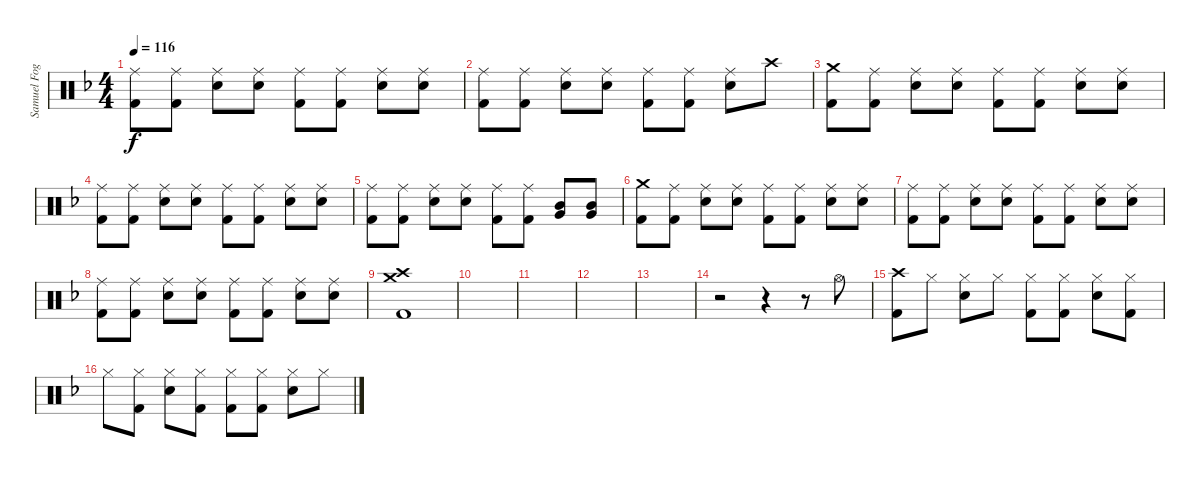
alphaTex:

\track ("Samuel Fogarino" "Samuel Fog") {instrument percussion}
\staff {score}
\articulation defaults
\ts (4 4)
\tempo 116
\clef neutral
\ks f
("Ride (middle)" "Kick (hit) 2").8{dy f} ("Ride (middle)" "Kick (hit) 2").8 ("Ride (middle)" "Snare (hit) 2").8 ("Ride (middle)" "Snare (hit) 2").8 ("Ride (middle)" "Kick (hit) 2").8 ("Ride (middle)" "Kick (hit) 2").8 ("Ride (middle)" "Snare (hit) 2").8 ("Ride (middle)" "Snare (hit) 2").8 |
("Ride (middle)" "Kick (hit) 2").8 ("Ride (middle)" "Kick (hit) 2").8 ("Ride (middle)" "Snare (hit) 2").8 ("Ride (middle)" "Snare (hit) 2").8 ("Ride (middle)" "Kick (hit) 2").8 ("Ride (middle)" "Kick (hit) 2").8 ("Ride (middle)" "Snare (hit) 2").8 "Crash high (hit)".8 |
("Crash medium (hit)" "Kick (hit) 2").8 ("Ride (middle)" "Kick (hit) 2").8 ("Ride (middle)" "Snare (hit) 2").8 ("Ride (middle)" "Snare (hit) 2").8 ("Ride (middle)" "Kick (hit) 2").8 ("Ride (middle)" "Kick (hit) 2").8 ("Ride (middle)" "Snare (hit) 2").8 ("Ride (middle)" "Snare (hit) 2").8 |
("Ride (middle)" "Kick (hit) 2").8 ("Ride (middle)" "Kick (hit) 2").8 ("Ride (middle)" "Snare (hit) 2").8 ("Ride (middle)" "Snare (hit) 2").8 ("Ride (middle)" "Kick (hit) 2").8 ("Ride (middle)" "Kick (hit) 2").8 ("Ride (middle)" "Snare (hit) 2").8 ("Ride (middle)" "Snare (hit) 2").8 |
("Ride (middle)" "Kick (hit) 2").8 ("Ride (middle)" "Kick (hit) 2").8 ("Ride (middle)" "Snare (hit) 2").8 ("Ride (middle)" "Snare (hit) 2").8 ("Ride (middle)" "Kick (hit) 2").8 ("Ride (middle)" "Kick (hit) 2").8 ("Mid Tom (hit)" "Very Low Tom (hit)").8 ("Mid Tom (hit)" "Very Low Tom (hit)").8 |
("Crash medium (hit)" "Kick (hit) 2").8 ("Ride (middle)" "Kick (hit) 2").8 ("Ride (middle)" "Snare (hit) 2").8 ("Ride (middle)" "Snare (hit) 2").8 ("Ride (middle)" "Kick (hit) 2").8 ("Ride (middle)" "Kick (hit) 2").8 ("Ride (middle)" "Snare (hit) 2").8 ("Ride (middle)" "Snare (hit) 2").8 |
("Ride (middle)" "Kick (hit) 2").8 ("Ride (middle)" "Kick (hit) 2").8 ("Ride (middle)" "Snare (hit) 2").8 ("Ride (middle)" "Snare (hit) 2").8 ("Ride (middle)" "Kick (hit) 2").8 ("Ride (middle)" "Kick (hit) 2").8 ("Ride (middle)" "Snare (hit) 2").8 ("Ride (middle)" "Snare (hit) 2").8 |
("Ride (middle)" "Kick (hit) 2").8 ("Ride (middle)" "Kick (hit) 2").8 ("Ride (middle)" "Snare (hit) 2").8 ("Ride (middle)" "Snare (hit) 2").8 ("Ride (middle)" "Kick (hit) 2").8 ("Ride (middle)" "Kick (hit) 2").8 ("Ride (middle)" "Snare (hit) 2").8 ("Ride (middle)" "Snare (hit) 2").8 |
("Crash high (hit)" "Crash medium (hit)" "Kick (hit) 2").1 |
|
|
|
|
r.2 r.4 r.8 "Hi-Hat (open)".8 |
("Crash high (hit)" "Kick (hit) 2").8 "Hi-Hat (closed)".8 ("Hi-Hat (closed)" "Snare (hit) 2").8 "Hi-Hat (closed)".8 ("Hi-Hat (closed)" "Kick (hit) 2").8 ("Hi-Hat (closed)" "Kick (hit) 2").8 ("Hi-Hat (closed)" "Snare (hit) 2").8 ("Hi-Hat (closed)" "Kick (hit) 2").8 |
"Hi-Hat (closed)".8 ("Hi-Hat (closed)" "Kick (hit) 2").8 ("Hi-Hat (closed)" "Snare (hit) 2").8 ("Hi-Hat (closed)" "Kick (hit) 2").8 ("Hi-Hat (closed)" "Kick (hit) 2").8 ("Hi-Hat (closed)" "Kick (hit) 2").8 ("Hi-Hat (closed)" "Snare (hit) 2").8 "Hi-Hat (closed)".8
